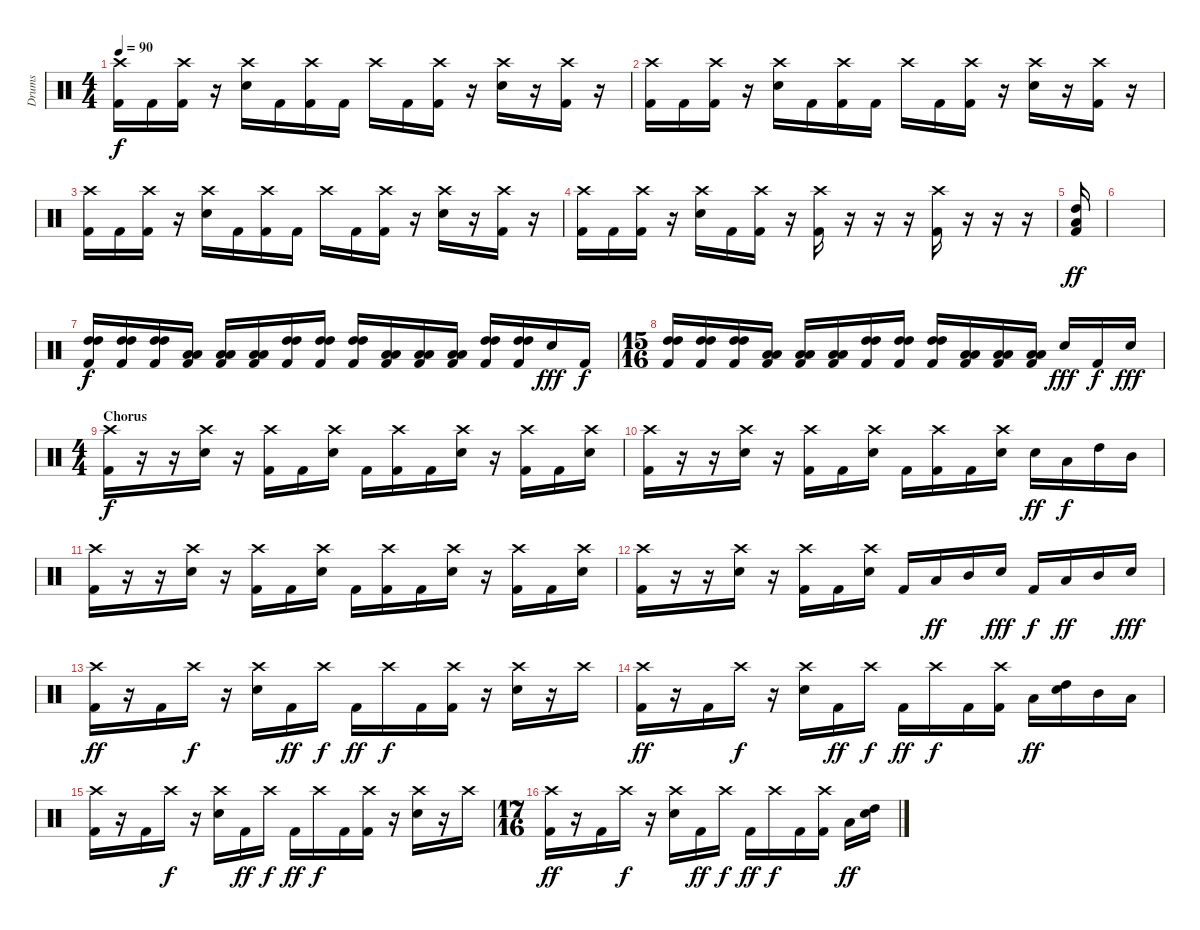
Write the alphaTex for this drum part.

\track ("Drums" "Drums") {instrument percussion}
\staff {score}
\articulation defaults
\ts (4 4)
\tempo 90
\clef neutral
\ks c
("Crash high (hit)" "Kick (hit) 2").16{dy f} "Kick (hit) 2".16 ("Crash high (hit)" "Kick (hit) 2").16 r.16 ("Crash high (hit)" "Electric Snare (hit)").16 "Kick (hit) 2".16 ("Crash high (hit)" "Kick (hit) 2").16 "Kick (hit) 2".16 "Crash high (hit)".16 "Kick (hit) 2".16 ("Crash high (hit)" "Kick (hit) 2").16 r.16 ("Crash high (hit)" "Electric Snare (hit)").16 r.16 ("Crash high (hit)" "Kick (hit) 2").16 r.16 |
("Crash high (hit)" "Kick (hit) 2").16 "Kick (hit) 2".16 ("Crash high (hit)" "Kick (hit) 2").16 r.16 ("Crash high (hit)" "Electric Snare (hit)").16 "Kick (hit) 2".16 ("Crash high (hit)" "Kick (hit) 2").16 "Kick (hit) 2".16 "Crash high (hit)".16 "Kick (hit) 2".16 ("Crash high (hit)" "Kick (hit) 2").16 r.16 ("Crash high (hit)" "Electric Snare (hit)").16 r.16 ("Crash high (hit)" "Kick (hit) 2").16 r.16 |
("Crash high (hit)" "Kick (hit) 2").16 "Kick (hit) 2".16 ("Crash high (hit)" "Kick (hit) 2").16 r.16 ("Crash high (hit)" "Electric Snare (hit)").16 "Kick (hit) 2".16 ("Crash high (hit)" "Kick (hit) 2").16 "Kick (hit) 2".16 "Crash high (hit)".16 "Kick (hit) 2".16 ("Crash high (hit)" "Kick (hit) 2").16 r.16 ("Crash high (hit)" "Electric Snare (hit)").16 r.16 ("Crash high (hit)" "Kick (hit) 2").16 r.16 |
("Crash high (hit)" "Kick (hit) 2").16 "Kick (hit) 2".16 ("Crash high (hit)" "Kick (hit) 2").16 r.16 ("Crash high (hit)" "Electric Snare (hit)").16 "Kick (hit) 2".16 ("Crash high (hit)" "Kick (hit) 2").16 r.16 ("Crash high (hit)" "Kick (hit) 2").16 r.16 r.16 r.16 ("Crash high (hit)" "Kick (hit) 2").16 r.16 r.16 r.16 |
("High Tom (hit)" "Low Tom (hit)" "Kick (hit) 2").16{dy ff} |
|
("High Tom (hit)" "High Tom (hit)" "Kick (hit) 2").16{dy f} ("High Tom (hit)" "High Tom (hit)" "Kick (hit) 2").16 ("High Tom (hit)" "High Tom (hit)" "Kick (hit) 2").16 ("Low Tom (hit)" "Low Tom (hit)" "Kick (hit) 2").16 ("Low Tom (hit)" "Low Tom (hit)" "Kick (hit) 2").16 ("Low Tom (hit)" "Low Tom (hit)" "Kick (hit) 2").16 ("High Tom (hit)" "High Tom (hit)" "Kick (hit) 2").16 ("High Tom (hit)" "High Tom (hit)" "Kick (hit) 2").16 ("High Tom (hit)" "High Tom (hit)" "Kick (hit) 2").16 ("Low Tom (hit)" "Low Tom (hit)" "Kick (hit) 2").16 ("Low Tom (hit)" "Low Tom (hit)" "Kick (hit) 2").16 ("Low Tom (hit)" "Low Tom (hit)" "Kick (hit) 2").16 ("High Tom (hit)" "High Tom (hit)" "Kick (hit) 2").16 ("High Tom (hit)" "High Tom (hit)" "Kick (hit) 2").16 "Electric Snare (hit)".16{dy fff} "Kick (hit) 2".16{dy f} |
\ts (15 16)
("High Tom (hit)" "High Tom (hit)" "Kick (hit) 2").16 ("High Tom (hit)" "High Tom (hit)" "Kick (hit) 2").16 ("High Tom (hit)" "High Tom (hit)" "Kick (hit) 2").16 ("Low Tom (hit)" "Low Tom (hit)" "Kick (hit) 2").16 ("Low Tom (hit)" "Low Tom (hit)" "Kick (hit) 2").16 ("Low Tom (hit)" "Low Tom (hit)" "Kick (hit) 2").16 ("High Tom (hit)" "High Tom (hit)" "Kick (hit) 2").16 ("High Tom (hit)" "High Tom (hit)" "Kick (hit) 2").16 ("High Tom (hit)" "High Tom (hit)" "Kick (hit) 2").16 ("Low Tom (hit)" "Low Tom (hit)" "Kick (hit) 2").16 ("Low Tom (hit)" "Low Tom (hit)" "Kick (hit) 2").16 ("Low Tom (hit)" "Low Tom (hit)" "Kick (hit) 2").16 "Electric Snare (hit)".16{dy fff} "Kick (hit) 2".16{dy f} "Electric Snare (hit)".16{dy fff} |
\ts (4 4)
\section ("" "Chorus")
("Crash high (hit)" "Kick (hit) 2").16{dy f} r.16 r.16 ("Crash high (hit)" "Electric Snare (hit)").16 r.16 ("Crash high (hit)" "Kick (hit) 2").16 "Kick (hit) 2".16 ("Crash high (hit)" "Electric Snare (hit)").16 "Kick (hit) 2".16 ("Crash high (hit)" "Kick (hit) 2").16 "Kick (hit) 2".16 ("Crash high (hit)" "Electric Snare (hit)").16 r.16 ("Crash high (hit)" "Kick (hit) 2").16 "Kick (hit) 2".16 ("Crash high (hit)" "Electric Snare (hit)").16 |
("Crash high (hit)" "Kick (hit) 2").16 r.16 r.16 ("Crash high (hit)" "Electric Snare (hit)").16 r.16 ("Crash high (hit)" "Kick (hit) 2").16 "Kick (hit) 2".16 ("Crash high (hit)" "Electric Snare (hit)").16 "Kick (hit) 2".16 ("Crash high (hit)" "Kick (hit) 2").16 "Kick (hit) 2".16 ("Crash high (hit)" "Electric Snare (hit)").16 "Electric Snare (hit)".16{dy ff} "Low Tom (hit)".16{dy f} "High Tom (hit)".16 "Mid Tom (hit)".16 |
("Crash high (hit)" "Kick (hit) 2").16 r.16 r.16 ("Crash high (hit)" "Electric Snare (hit)").16 r.16 ("Crash high (hit)" "Kick (hit) 2").16 "Kick (hit) 2".16 ("Crash high (hit)" "Electric Snare (hit)").16 "Kick (hit) 2".16 ("Crash high (hit)" "Kick (hit) 2").16 "Kick (hit) 2".16 ("Crash high (hit)" "Electric Snare (hit)").16 r.16 ("Crash high (hit)" "Kick (hit) 2").16 "Kick (hit) 2".16 ("Crash high (hit)" "Electric Snare (hit)").16 |
("Crash high (hit)" "Kick (hit) 2").16 r.16 r.16 ("Crash high (hit)" "Electric Snare (hit)").16 r.16 ("Crash high (hit)" "Kick (hit) 2").16 "Kick (hit) 2".16 ("Crash high (hit)" "Electric Snare (hit)").16 "Kick (hit) 2".16 "Low Tom (hit)".16{dy ff} "Mid Tom (hit)".16 "Electric Snare (hit)".16{dy fff} "Kick (hit) 2".16{dy f} "Low Tom (hit)".16{dy ff} "Mid Tom (hit)".16 "Electric Snare (hit)".16{dy fff} |
("Crash high (hit)" "Kick (hit) 2").16{dy ff} r.16 "Kick (hit) 2".16 "Crash high (hit)".16{dy f} r.16 ("Crash high (hit)" "Electric Snare (hit)").16 "Kick (hit) 2".16{dy ff} "Crash high (hit)".16{dy f} "Kick (hit) 2".16{dy ff} "Crash high (hit)".16{dy f} "Kick (hit) 2".16 ("Crash high (hit)" "Kick (hit) 2").16 r.16 ("Crash high (hit)" "Electric Snare (hit)").16 r.16 "Crash high (hit)".16 |
("Crash high (hit)" "Kick (hit) 2").16{dy ff} r.16 "Kick (hit) 2".16 "Crash high (hit)".16{dy f} r.16 ("Crash high (hit)" "Electric Snare (hit)").16 "Kick (hit) 2".16{dy ff} "Crash high (hit)".16{dy f} "Kick (hit) 2".16{dy ff} "Crash high (hit)".16{dy f} "Kick (hit) 2".16 ("Crash high (hit)" "Kick (hit) 2").16 "Low Tom (hit)".16{dy ff} ("High Tom (hit)" "Electric Snare (hit)").16 "Mid Tom (hit)".16 "Low Tom (hit)".16 |
("Crash high (hit)" "Kick (hit) 2").16 r.16 "Kick (hit) 2".16 "Crash high (hit)".16{dy f} r.16 ("Crash high (hit)" "Electric Snare (hit)").16 "Kick (hit) 2".16{dy ff} "Crash high (hit)".16{dy f} "Kick (hit) 2".16{dy ff} "Crash high (hit)".16{dy f} "Kick (hit) 2".16 ("Crash high (hit)" "Kick (hit) 2").16 r.16 ("Crash high (hit)" "Electric Snare (hit)").16 r.16 "Crash high (hit)".16 |
\ts (17 16)
("Crash high (hit)" "Kick (hit) 2").16{dy ff} r.16 "Kick (hit) 2".16 "Crash high (hit)".16{dy f} r.16 ("Crash high (hit)" "Electric Snare (hit)").16 "Kick (hit) 2".16{dy ff} "Crash high (hit)".16{dy f} "Kick (hit) 2".16{dy ff} "Crash high (hit)".16{dy f} "Kick (hit) 2".16 ("Crash high (hit)" "Kick (hit) 2").16 "Low Tom (hit)".16{dy ff} ("High Tom (hit)" "Electric Snare (hit)").16
